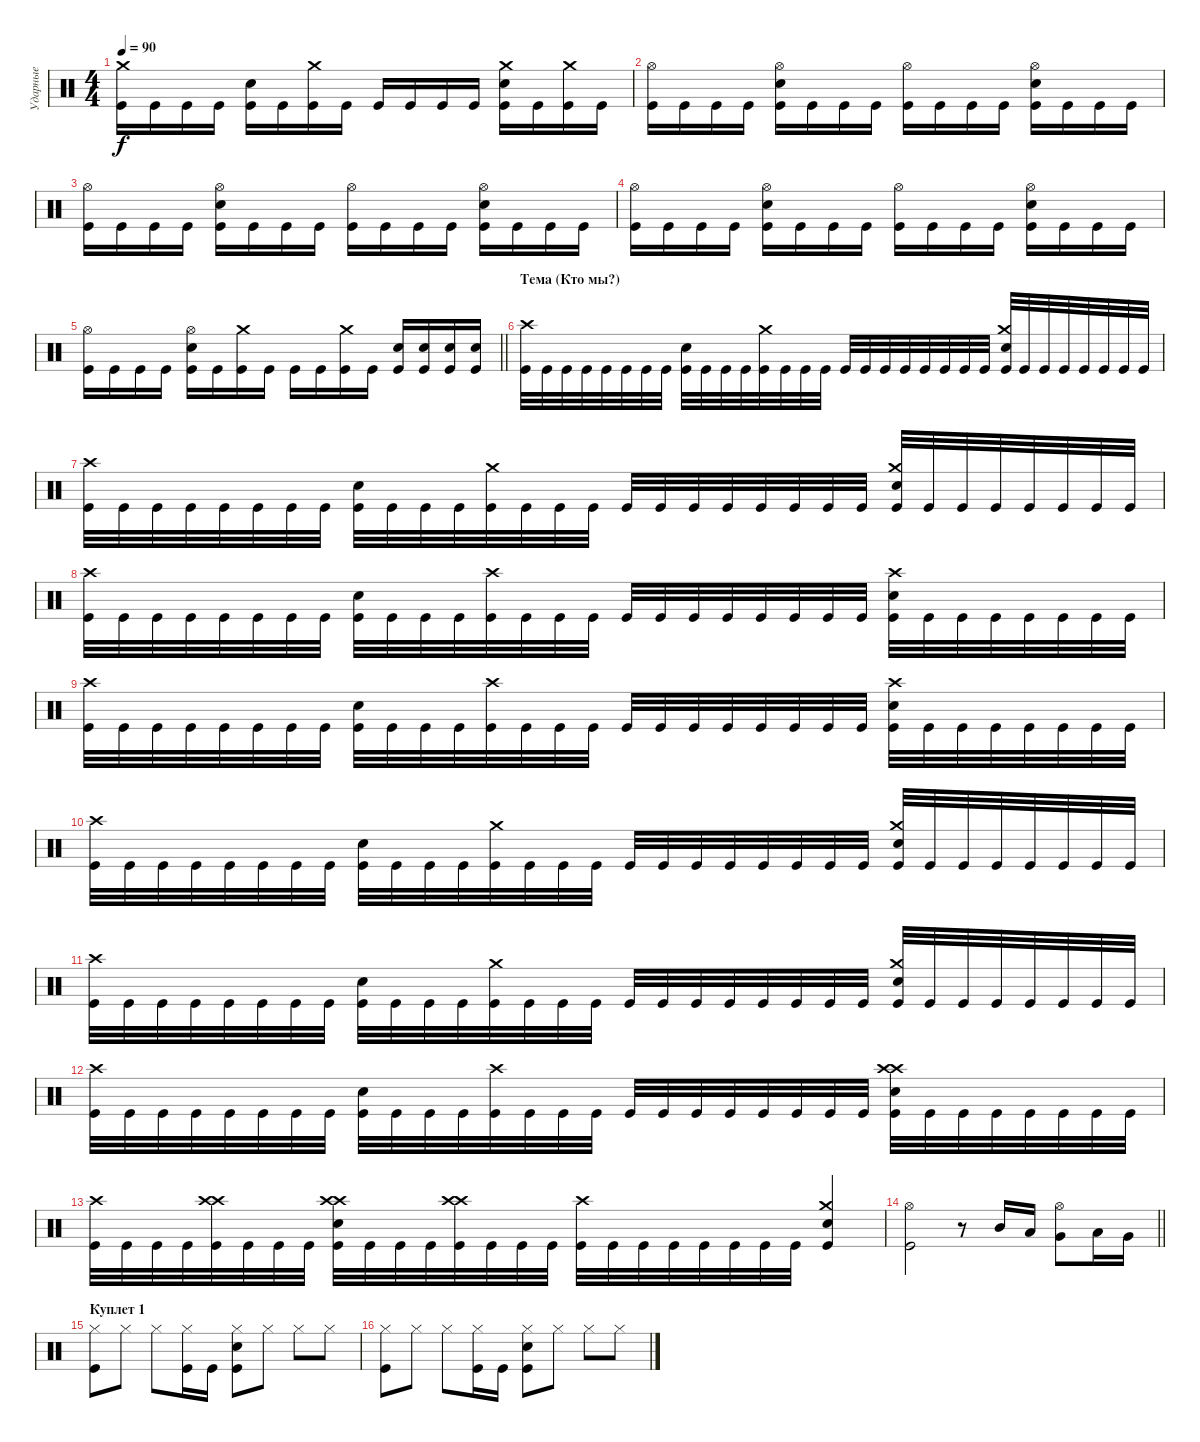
\track ("Ударные" "Ударные") {instrument percussion}
\staff {score}
\articulation defaults
\ts (4 4)
\tempo 90
\clef neutral
\ks c
("Kick (hit)" "Crash medium (hit)").16{dy f} "Kick (hit)".16 "Kick (hit)".16 "Kick (hit)".16 ("Kick (hit)" "Electric Snare (hit)").16 "Kick (hit)".16 ("Kick (hit)" "Crash medium (hit)").16 "Kick (hit)".16 "Kick (hit)".16 "Kick (hit)".16 "Kick (hit)".16 "Kick (hit)".16 ("Kick (hit)" "Electric Snare (hit)" "Crash medium (hit)").16 "Kick (hit)".16 ("Kick (hit)" "Crash medium (hit)").16 "Kick (hit)".16 |
("Kick (hit)" "Hi-Hat (open)").16 "Kick (hit)".16 "Kick (hit)".16 "Kick (hit)".16 ("Kick (hit)" "Electric Snare (hit)" "Hi-Hat (open)").16 "Kick (hit)".16 "Kick (hit)".16 "Kick (hit)".16 ("Kick (hit)" "Hi-Hat (open)").16 "Kick (hit)".16 "Kick (hit)".16 "Kick (hit)".16 ("Kick (hit)" "Electric Snare (hit)" "Hi-Hat (open)").16 "Kick (hit)".16 "Kick (hit)".16 "Kick (hit)".16 |
("Kick (hit)" "Hi-Hat (open)").16 "Kick (hit)".16 "Kick (hit)".16 "Kick (hit)".16 ("Kick (hit)" "Electric Snare (hit)" "Hi-Hat (open)").16 "Kick (hit)".16 "Kick (hit)".16 "Kick (hit)".16 ("Kick (hit)" "Hi-Hat (open)").16 "Kick (hit)".16 "Kick (hit)".16 "Kick (hit)".16 ("Kick (hit)" "Electric Snare (hit)" "Hi-Hat (open)").16 "Kick (hit)".16 "Kick (hit)".16 "Kick (hit)".16 |
("Kick (hit)" "Hi-Hat (open)").16 "Kick (hit)".16 "Kick (hit)".16 "Kick (hit)".16 ("Kick (hit)" "Electric Snare (hit)" "Hi-Hat (open)").16 "Kick (hit)".16 "Kick (hit)".16 "Kick (hit)".16 ("Kick (hit)" "Hi-Hat (open)").16 "Kick (hit)".16 "Kick (hit)".16 "Kick (hit)".16 ("Kick (hit)" "Electric Snare (hit)" "Hi-Hat (open)").16 "Kick (hit)".16 "Kick (hit)".16 "Kick (hit)".16 |
\barLineRight lightlight
("Kick (hit)" "Hi-Hat (open)").16 "Kick (hit)".16 "Kick (hit)".16 "Kick (hit)".16 ("Kick (hit)" "Electric Snare (hit)" "Hi-Hat (open)").16 "Kick (hit)".16 ("Kick (hit)" "Crash medium (hit)").16 "Kick (hit)".16 "Kick (hit)".16 "Kick (hit)".16 ("Kick (hit)" "Crash medium (hit)").16 "Kick (hit)".16 ("Kick (hit)" "Electric Snare (hit)").16 ("Kick (hit)" "Electric Snare (hit)").16 ("Kick (hit)" "Electric Snare (hit)").16 ("Kick (hit)" "Electric Snare (hit)").16 |
\section ("" "Тема (Кто мы?)")
("Kick (hit)" "Crash high (hit)").32 "Kick (hit)".32 "Kick (hit)".32 "Kick (hit)".32 "Kick (hit)".32 "Kick (hit)".32 "Kick (hit)".32 "Kick (hit)".32 ("Kick (hit)" "Electric Snare (hit)").32 "Kick (hit)".32 "Kick (hit)".32 "Kick (hit)".32 ("Kick (hit)" "Crash medium (hit)").32 "Kick (hit)".32 "Kick (hit)".32 "Kick (hit)".32 "Kick (hit)".32 "Kick (hit)".32 "Kick (hit)".32 "Kick (hit)".32 "Kick (hit)".32 "Kick (hit)".32 "Kick (hit)".32 "Kick (hit)".32 ("Kick (hit)" "Electric Snare (hit)" "Crash medium (hit)").32 "Kick (hit)".32 "Kick (hit)".32 "Kick (hit)".32 "Kick (hit)".32 "Kick (hit)".32 "Kick (hit)".32 "Kick (hit)".32 |
("Kick (hit)" "Crash high (hit)").32 "Kick (hit)".32 "Kick (hit)".32 "Kick (hit)".32 "Kick (hit)".32 "Kick (hit)".32 "Kick (hit)".32 "Kick (hit)".32 ("Kick (hit)" "Electric Snare (hit)").32 "Kick (hit)".32 "Kick (hit)".32 "Kick (hit)".32 ("Kick (hit)" "Crash medium (hit)").32 "Kick (hit)".32 "Kick (hit)".32 "Kick (hit)".32 "Kick (hit)".32 "Kick (hit)".32 "Kick (hit)".32 "Kick (hit)".32 "Kick (hit)".32 "Kick (hit)".32 "Kick (hit)".32 "Kick (hit)".32 ("Kick (hit)" "Electric Snare (hit)" "Crash medium (hit)").32 "Kick (hit)".32 "Kick (hit)".32 "Kick (hit)".32 "Kick (hit)".32 "Kick (hit)".32 "Kick (hit)".32 "Kick (hit)".32 |
("Kick (hit)" "Crash high (hit)").32 "Kick (hit)".32 "Kick (hit)".32 "Kick (hit)".32 "Kick (hit)".32 "Kick (hit)".32 "Kick (hit)".32 "Kick (hit)".32 ("Kick (hit)" "Electric Snare (hit)").32 "Kick (hit)".32 "Kick (hit)".32 "Kick (hit)".32 ("Kick (hit)" "Crash high (hit)").32 "Kick (hit)".32 "Kick (hit)".32 "Kick (hit)".32 "Kick (hit)".32 "Kick (hit)".32 "Kick (hit)".32 "Kick (hit)".32 "Kick (hit)".32 "Kick (hit)".32 "Kick (hit)".32 "Kick (hit)".32 ("Kick (hit)" "Electric Snare (hit)" "Crash high (hit)").32 "Kick (hit)".32 "Kick (hit)".32 "Kick (hit)".32 "Kick (hit)".32 "Kick (hit)".32 "Kick (hit)".32 "Kick (hit)".32 |
("Kick (hit)" "Crash high (hit)").32 "Kick (hit)".32 "Kick (hit)".32 "Kick (hit)".32 "Kick (hit)".32 "Kick (hit)".32 "Kick (hit)".32 "Kick (hit)".32 ("Kick (hit)" "Electric Snare (hit)").32 "Kick (hit)".32 "Kick (hit)".32 "Kick (hit)".32 ("Kick (hit)" "Crash high (hit)").32 "Kick (hit)".32 "Kick (hit)".32 "Kick (hit)".32 "Kick (hit)".32 "Kick (hit)".32 "Kick (hit)".32 "Kick (hit)".32 "Kick (hit)".32 "Kick (hit)".32 "Kick (hit)".32 "Kick (hit)".32 ("Kick (hit)" "Electric Snare (hit)" "Crash high (hit)").32 "Kick (hit)".32 "Kick (hit)".32 "Kick (hit)".32 "Kick (hit)".32 "Kick (hit)".32 "Kick (hit)".32 "Kick (hit)".32 |
("Kick (hit)" "Crash high (hit)").32 "Kick (hit)".32 "Kick (hit)".32 "Kick (hit)".32 "Kick (hit)".32 "Kick (hit)".32 "Kick (hit)".32 "Kick (hit)".32 ("Kick (hit)" "Electric Snare (hit)").32 "Kick (hit)".32 "Kick (hit)".32 "Kick (hit)".32 ("Kick (hit)" "Crash medium (hit)").32 "Kick (hit)".32 "Kick (hit)".32 "Kick (hit)".32 "Kick (hit)".32 "Kick (hit)".32 "Kick (hit)".32 "Kick (hit)".32 "Kick (hit)".32 "Kick (hit)".32 "Kick (hit)".32 "Kick (hit)".32 ("Kick (hit)" "Electric Snare (hit)" "Crash medium (hit)").32 "Kick (hit)".32 "Kick (hit)".32 "Kick (hit)".32 "Kick (hit)".32 "Kick (hit)".32 "Kick (hit)".32 "Kick (hit)".32 |
("Kick (hit)" "Crash high (hit)").32 "Kick (hit)".32 "Kick (hit)".32 "Kick (hit)".32 "Kick (hit)".32 "Kick (hit)".32 "Kick (hit)".32 "Kick (hit)".32 ("Kick (hit)" "Electric Snare (hit)").32 "Kick (hit)".32 "Kick (hit)".32 "Kick (hit)".32 ("Kick (hit)" "Crash medium (hit)").32 "Kick (hit)".32 "Kick (hit)".32 "Kick (hit)".32 "Kick (hit)".32 "Kick (hit)".32 "Kick (hit)".32 "Kick (hit)".32 "Kick (hit)".32 "Kick (hit)".32 "Kick (hit)".32 "Kick (hit)".32 ("Kick (hit)" "Electric Snare (hit)" "Crash medium (hit)").32 "Kick (hit)".32 "Kick (hit)".32 "Kick (hit)".32 "Kick (hit)".32 "Kick (hit)".32 "Kick (hit)".32 "Kick (hit)".32 |
("Kick (hit)" "Crash high (hit)").32 "Kick (hit)".32 "Kick (hit)".32 "Kick (hit)".32 "Kick (hit)".32 "Kick (hit)".32 "Kick (hit)".32 "Kick (hit)".32 ("Kick (hit)" "Electric Snare (hit)").32 "Kick (hit)".32 "Kick (hit)".32 "Kick (hit)".32 ("Kick (hit)" "Crash high (hit)").32 "Kick (hit)".32 "Kick (hit)".32 "Kick (hit)".32 "Kick (hit)".32 "Kick (hit)".32 "Kick (hit)".32 "Kick (hit)".32 "Kick (hit)".32 "Kick (hit)".32 "Kick (hit)".32 "Kick (hit)".32 ("Kick (hit)" "Electric Snare (hit)" "Crash high (hit)" "Crash high (hit)").32 "Kick (hit)".32 "Kick (hit)".32 "Kick (hit)".32 "Kick (hit)".32 "Kick (hit)".32 "Kick (hit)".32 "Kick (hit)".32 |
("Kick (hit)" "Crash high (hit)").32 "Kick (hit)".32 "Kick (hit)".32 "Kick (hit)".32 ("Kick (hit)" "Crash high (hit)" "Crash high (hit)").32 "Kick (hit)".32 "Kick (hit)".32 "Kick (hit)".32 ("Kick (hit)" "Electric Snare (hit)" "Crash high (hit)" "Crash high (hit)").32 "Kick (hit)".32 "Kick (hit)".32 "Kick (hit)".32 ("Kick (hit)" "Crash high (hit)" "Crash high (hit)").32 "Kick (hit)".32 "Kick (hit)".32 "Kick (hit)".32 ("Kick (hit)" "Crash high (hit)").32 "Kick (hit)".32 "Kick (hit)".32 "Kick (hit)".32 "Kick (hit)".32 "Kick (hit)".32 "Kick (hit)".32 "Kick (hit)".32 ("Electric Snare (hit)" "Kick (hit)" "Crash medium (hit)").4 |
\barLineRight lightlight
("Kick (hit)" "Hi-Hat (open)").2 r.8 "Mid Tom (hit)".16 "Low Tom (hit)".16 ("Very Low Tom (hit)" "Hi-Hat (open)").8 "Low Tom (hit)".16 "Very Low Tom (hit)".16 |
\section ("" "Куплет 1")
("Hi-Hat (closed)" "Kick (hit)").8 "Hi-Hat (closed)".8 "Hi-Hat (closed)".8 ("Kick (hit)" "Hi-Hat (closed)").16 "Kick (hit)".16 ("Hi-Hat (closed)" "Electric Snare (hit)" "Kick (hit)").8 "Hi-Hat (closed)".8 "Hi-Hat (closed)".8 "Hi-Hat (closed)".8 |
("Hi-Hat (closed)" "Kick (hit)").8 "Hi-Hat (closed)".8 "Hi-Hat (closed)".8 ("Kick (hit)" "Hi-Hat (closed)").16 "Kick (hit)".16 ("Hi-Hat (closed)" "Electric Snare (hit)" "Kick (hit)").8 "Hi-Hat (closed)".8 "Hi-Hat (closed)".8 "Hi-Hat (closed)".8
